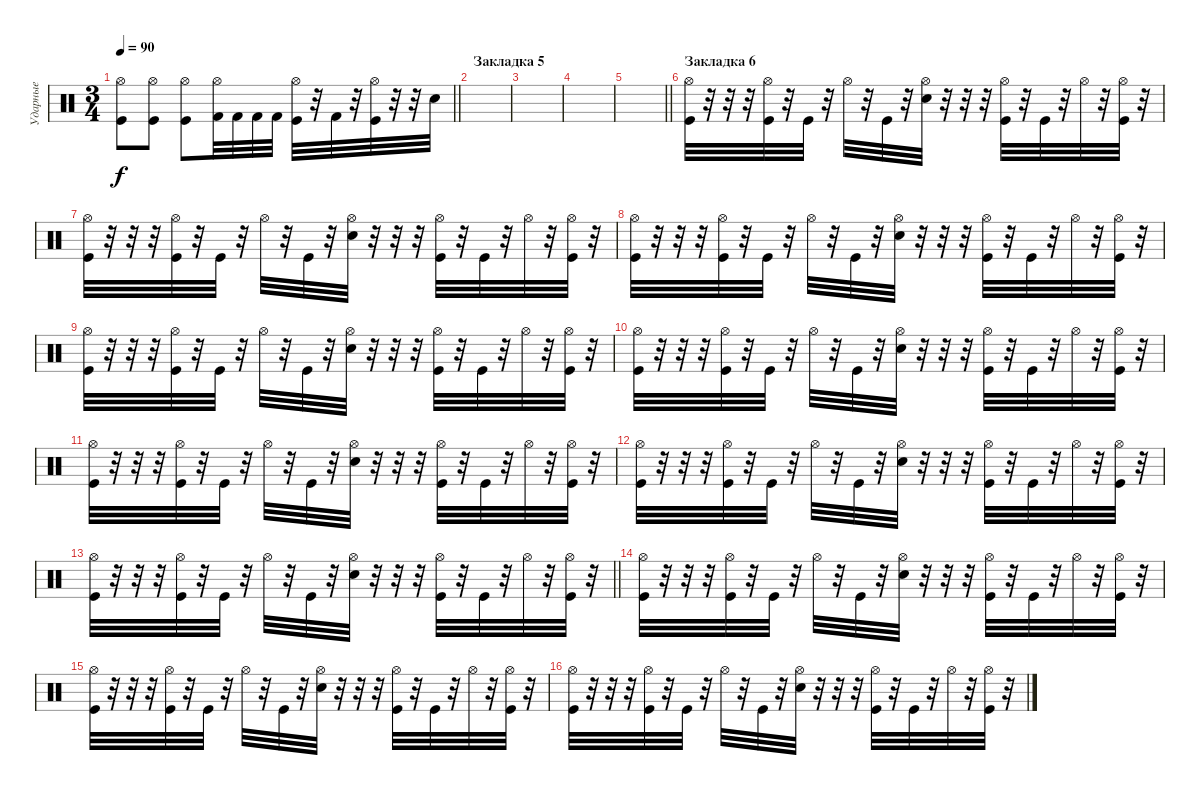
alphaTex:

\track ("Ударные" "Ударные") {instrument percussion}
\staff {score}
\articulation defaults
\ts (3 4)
\tempo 90
\clef neutral
\barLineRight lightlight
\ks c
("Hi-Hat (open)" "Kick (hit)").8{dy f} ("Hi-Hat (open)" "Kick (hit)").8 ("Hi-Hat (open)" "Kick (hit)").8 ("Hi-Hat (open)" "Kick (hit) 2").32 "Kick (hit) 2".32 "Kick (hit) 2".32 "Kick (hit) 2".32 ("Hi-Hat (open)" "Kick (hit)").32 r.32 "Kick (hit) 2".32 r.32 ("Hi-Hat (open)" "Kick (hit)").32 r.32 r.32 "Snare (hit)".32 |
\section ("" "Закладка 5")
|
|
|
\barLineRight lightlight
|
\section ("" "Закладка 6")
("Hi-Hat (open)" "Kick (hit)").32 r.32 r.32 r.32 ("Hi-Hat (open)" "Kick (hit)").32 r.32 "Kick (hit)".32 r.32 "Hi-Hat (open)".32 r.32 "Kick (hit)".32 r.32 ("Hi-Hat (open)" "Electric Snare (hit)").32 r.32 r.32 r.32 ("Hi-Hat (open)" "Kick (hit)").32 r.32 "Kick (hit)".32 r.32 "Hi-Hat (open)".32 r.32 ("Hi-Hat (open)" "Kick (hit)").32 r.32 |
("Hi-Hat (open)" "Kick (hit)").32 r.32 r.32 r.32 ("Hi-Hat (open)" "Kick (hit)").32 r.32 "Kick (hit)".32 r.32 "Hi-Hat (open)".32 r.32 "Kick (hit)".32 r.32 ("Hi-Hat (open)" "Electric Snare (hit)").32 r.32 r.32 r.32 ("Hi-Hat (open)" "Kick (hit)").32 r.32 "Kick (hit)".32 r.32 "Hi-Hat (open)".32 r.32 ("Hi-Hat (open)" "Kick (hit)").32 r.32 |
("Hi-Hat (open)" "Kick (hit)").32 r.32 r.32 r.32 ("Hi-Hat (open)" "Kick (hit)").32 r.32 "Kick (hit)".32 r.32 "Hi-Hat (open)".32 r.32 "Kick (hit)".32 r.32 ("Hi-Hat (open)" "Electric Snare (hit)").32 r.32 r.32 r.32 ("Hi-Hat (open)" "Kick (hit)").32 r.32 "Kick (hit)".32 r.32 "Hi-Hat (open)".32 r.32 ("Hi-Hat (open)" "Kick (hit)").32 r.32 |
("Hi-Hat (open)" "Kick (hit)").32 r.32 r.32 r.32 ("Hi-Hat (open)" "Kick (hit)").32 r.32 "Kick (hit)".32 r.32 "Hi-Hat (open)".32 r.32 "Kick (hit)".32 r.32 ("Hi-Hat (open)" "Electric Snare (hit)").32 r.32 r.32 r.32 ("Hi-Hat (open)" "Kick (hit)").32 r.32 "Kick (hit)".32 r.32 "Hi-Hat (open)".32 r.32 ("Hi-Hat (open)" "Kick (hit)").32 r.32 |
("Hi-Hat (open)" "Kick (hit)").32 r.32 r.32 r.32 ("Hi-Hat (open)" "Kick (hit)").32 r.32 "Kick (hit)".32 r.32 "Hi-Hat (open)".32 r.32 "Kick (hit)".32 r.32 ("Hi-Hat (open)" "Electric Snare (hit)").32 r.32 r.32 r.32 ("Hi-Hat (open)" "Kick (hit)").32 r.32 "Kick (hit)".32 r.32 "Hi-Hat (open)".32 r.32 ("Hi-Hat (open)" "Kick (hit)").32 r.32 |
("Hi-Hat (open)" "Kick (hit)").32 r.32 r.32 r.32 ("Hi-Hat (open)" "Kick (hit)").32 r.32 "Kick (hit)".32 r.32 "Hi-Hat (open)".32 r.32 "Kick (hit)".32 r.32 ("Hi-Hat (open)" "Electric Snare (hit)").32 r.32 r.32 r.32 ("Hi-Hat (open)" "Kick (hit)").32 r.32 "Kick (hit)".32 r.32 "Hi-Hat (open)".32 r.32 ("Hi-Hat (open)" "Kick (hit)").32 r.32 |
("Hi-Hat (open)" "Kick (hit)").32 r.32 r.32 r.32 ("Hi-Hat (open)" "Kick (hit)").32 r.32 "Kick (hit)".32 r.32 "Hi-Hat (open)".32 r.32 "Kick (hit)".32 r.32 ("Hi-Hat (open)" "Electric Snare (hit)").32 r.32 r.32 r.32 ("Hi-Hat (open)" "Kick (hit)").32 r.32 "Kick (hit)".32 r.32 "Hi-Hat (open)".32 r.32 ("Hi-Hat (open)" "Kick (hit)").32 r.32 |
\barLineRight lightlight
("Hi-Hat (open)" "Kick (hit)").32 r.32 r.32 r.32 ("Hi-Hat (open)" "Kick (hit)").32 r.32 "Kick (hit)".32 r.32 "Hi-Hat (open)".32 r.32 "Kick (hit)".32 r.32 ("Hi-Hat (open)" "Electric Snare (hit)").32 r.32 r.32 r.32 ("Hi-Hat (open)" "Kick (hit)").32 r.32 "Kick (hit)".32 r.32 "Hi-Hat (open)".32 r.32 ("Hi-Hat (open)" "Kick (hit)").32 r.32 |
("Hi-Hat (open)" "Kick (hit)").32 r.32 r.32 r.32 ("Hi-Hat (open)" "Kick (hit)").32 r.32 "Kick (hit)".32 r.32 "Hi-Hat (open)".32 r.32 "Kick (hit)".32 r.32 ("Hi-Hat (open)" "Electric Snare (hit)").32 r.32 r.32 r.32 ("Hi-Hat (open)" "Kick (hit)").32 r.32 "Kick (hit)".32 r.32 "Hi-Hat (open)".32 r.32 ("Hi-Hat (open)" "Kick (hit)").32 r.32 |
("Hi-Hat (open)" "Kick (hit)").32 r.32 r.32 r.32 ("Hi-Hat (open)" "Kick (hit)").32 r.32 "Kick (hit)".32 r.32 "Hi-Hat (open)".32 r.32 "Kick (hit)".32 r.32 ("Hi-Hat (open)" "Electric Snare (hit)").32 r.32 r.32 r.32 ("Hi-Hat (open)" "Kick (hit)").32 r.32 "Kick (hit)".32 r.32 "Hi-Hat (open)".32 r.32 ("Hi-Hat (open)" "Kick (hit)").32 r.32 |
("Hi-Hat (open)" "Kick (hit)").32 r.32 r.32 r.32 ("Hi-Hat (open)" "Kick (hit)").32 r.32 "Kick (hit)".32 r.32 "Hi-Hat (open)".32 r.32 "Kick (hit)".32 r.32 ("Hi-Hat (open)" "Electric Snare (hit)").32 r.32 r.32 r.32 ("Hi-Hat (open)" "Kick (hit)").32 r.32 "Kick (hit)".32 r.32 "Hi-Hat (open)".32 r.32 ("Hi-Hat (open)" "Kick (hit)").32 r.32
